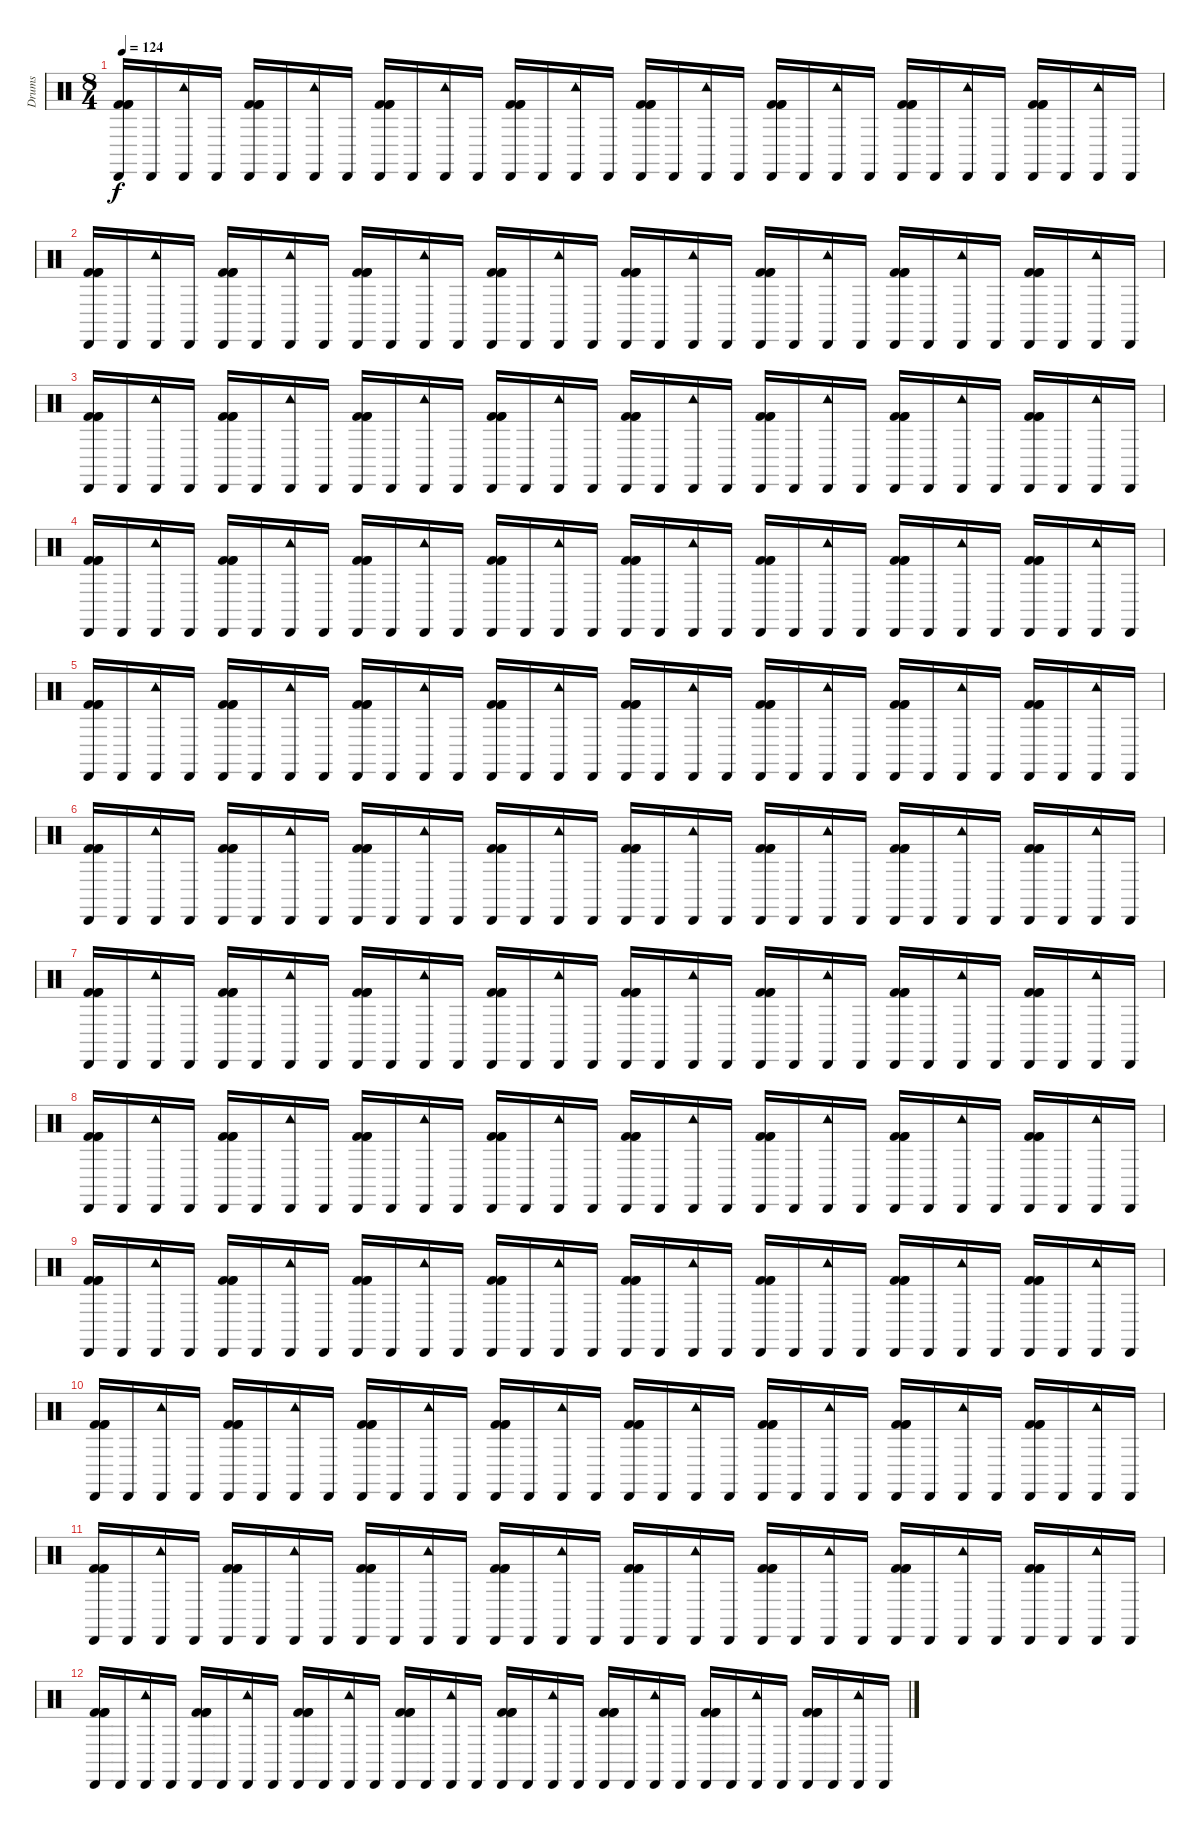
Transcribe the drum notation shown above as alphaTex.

\track ("Drums" "Drums") {instrument percussion}
\staff {score}
\articulation defaults
\ts (8 4)
\tempo 124
\clef neutral
\ks c
("Cabasa (hit)" "Kick (hit) 2" "Kick (hit) 2" "Kick (hit) 2").16{dy f volume 16} "Cabasa (hit)".16 ("Tambourine (hit)" "Cabasa (hit)").16 "Cabasa (hit)".16 ("Cabasa (hit)" "Kick (hit) 2" "Kick (hit) 2" "Kick (hit) 2").16 "Cabasa (hit)".16 ("Tambourine (hit)" "Cabasa (hit)").16 "Cabasa (hit)".16 ("Cabasa (hit)" "Kick (hit) 2" "Kick (hit) 2" "Kick (hit) 2").16 "Cabasa (hit)".16 ("Tambourine (hit)" "Cabasa (hit)").16 "Cabasa (hit)".16 ("Cabasa (hit)" "Kick (hit) 2" "Kick (hit) 2" "Kick (hit) 2").16 "Cabasa (hit)".16 ("Tambourine (hit)" "Cabasa (hit)").16 "Cabasa (hit)".16 ("Cabasa (hit)" "Kick (hit) 2" "Kick (hit) 2" "Kick (hit) 2").16 "Cabasa (hit)".16 ("Tambourine (hit)" "Cabasa (hit)").16 "Cabasa (hit)".16 ("Cabasa (hit)" "Kick (hit) 2" "Kick (hit) 2" "Kick (hit) 2").16 "Cabasa (hit)".16 ("Tambourine (hit)" "Cabasa (hit)").16 "Cabasa (hit)".16 ("Cabasa (hit)" "Kick (hit) 2" "Kick (hit) 2" "Kick (hit) 2").16 "Cabasa (hit)".16 ("Tambourine (hit)" "Cabasa (hit)").16 "Cabasa (hit)".16 ("Cabasa (hit)" "Kick (hit) 2" "Kick (hit) 2" "Kick (hit) 2").16 "Cabasa (hit)".16 ("Tambourine (hit)" "Cabasa (hit)").16 "Cabasa (hit)".16 |
("Cabasa (hit)" "Kick (hit) 2" "Kick (hit) 2" "Kick (hit) 2").16{volume 16} "Cabasa (hit)".16 ("Tambourine (hit)" "Cabasa (hit)").16 "Cabasa (hit)".16 ("Cabasa (hit)" "Kick (hit) 2" "Kick (hit) 2" "Kick (hit) 2").16 "Cabasa (hit)".16 ("Tambourine (hit)" "Cabasa (hit)").16 "Cabasa (hit)".16 ("Cabasa (hit)" "Kick (hit) 2" "Kick (hit) 2" "Kick (hit) 2").16 "Cabasa (hit)".16 ("Tambourine (hit)" "Cabasa (hit)").16 "Cabasa (hit)".16 ("Cabasa (hit)" "Kick (hit) 2" "Kick (hit) 2" "Kick (hit) 2").16 "Cabasa (hit)".16 ("Tambourine (hit)" "Cabasa (hit)").16 "Cabasa (hit)".16 ("Cabasa (hit)" "Kick (hit) 2" "Kick (hit) 2" "Kick (hit) 2").16 "Cabasa (hit)".16 ("Tambourine (hit)" "Cabasa (hit)").16 "Cabasa (hit)".16 ("Cabasa (hit)" "Kick (hit) 2" "Kick (hit) 2" "Kick (hit) 2").16 "Cabasa (hit)".16 ("Tambourine (hit)" "Cabasa (hit)").16 "Cabasa (hit)".16 ("Cabasa (hit)" "Kick (hit) 2" "Kick (hit) 2" "Kick (hit) 2").16 "Cabasa (hit)".16 ("Tambourine (hit)" "Cabasa (hit)").16 "Cabasa (hit)".16 ("Cabasa (hit)" "Kick (hit) 2" "Kick (hit) 2" "Kick (hit) 2").16 "Cabasa (hit)".16 ("Tambourine (hit)" "Cabasa (hit)").16 "Cabasa (hit)".16 |
("Cabasa (hit)" "Kick (hit) 2" "Kick (hit) 2" "Kick (hit) 2").16{volume 16} "Cabasa (hit)".16 ("Tambourine (hit)" "Cabasa (hit)").16 "Cabasa (hit)".16 ("Cabasa (hit)" "Kick (hit) 2" "Kick (hit) 2" "Kick (hit) 2").16 "Cabasa (hit)".16 ("Tambourine (hit)" "Cabasa (hit)").16 "Cabasa (hit)".16 ("Cabasa (hit)" "Kick (hit) 2" "Kick (hit) 2" "Kick (hit) 2").16 "Cabasa (hit)".16 ("Tambourine (hit)" "Cabasa (hit)").16 "Cabasa (hit)".16 ("Cabasa (hit)" "Kick (hit) 2" "Kick (hit) 2" "Kick (hit) 2").16 "Cabasa (hit)".16 ("Tambourine (hit)" "Cabasa (hit)").16 "Cabasa (hit)".16 ("Cabasa (hit)" "Kick (hit) 2" "Kick (hit) 2" "Kick (hit) 2").16 "Cabasa (hit)".16 ("Tambourine (hit)" "Cabasa (hit)").16 "Cabasa (hit)".16 ("Cabasa (hit)" "Kick (hit) 2" "Kick (hit) 2" "Kick (hit) 2").16 "Cabasa (hit)".16 ("Tambourine (hit)" "Cabasa (hit)").16 "Cabasa (hit)".16 ("Cabasa (hit)" "Kick (hit) 2" "Kick (hit) 2" "Kick (hit) 2").16 "Cabasa (hit)".16 ("Tambourine (hit)" "Cabasa (hit)").16 "Cabasa (hit)".16 ("Cabasa (hit)" "Kick (hit) 2" "Kick (hit) 2" "Kick (hit) 2").16 "Cabasa (hit)".16 ("Tambourine (hit)" "Cabasa (hit)").16 "Cabasa (hit)".16 |
("Cabasa (hit)" "Kick (hit) 2" "Kick (hit) 2" "Kick (hit) 2").16{volume 16} "Cabasa (hit)".16 ("Tambourine (hit)" "Cabasa (hit)").16 "Cabasa (hit)".16 ("Cabasa (hit)" "Kick (hit) 2" "Kick (hit) 2" "Kick (hit) 2").16 "Cabasa (hit)".16 ("Tambourine (hit)" "Cabasa (hit)").16 "Cabasa (hit)".16 ("Cabasa (hit)" "Kick (hit) 2" "Kick (hit) 2" "Kick (hit) 2").16 "Cabasa (hit)".16 ("Tambourine (hit)" "Cabasa (hit)").16 "Cabasa (hit)".16 ("Cabasa (hit)" "Kick (hit) 2" "Kick (hit) 2" "Kick (hit) 2").16 "Cabasa (hit)".16 ("Tambourine (hit)" "Cabasa (hit)").16 "Cabasa (hit)".16 ("Cabasa (hit)" "Kick (hit) 2" "Kick (hit) 2" "Kick (hit) 2").16 "Cabasa (hit)".16 ("Tambourine (hit)" "Cabasa (hit)").16 "Cabasa (hit)".16 ("Cabasa (hit)" "Kick (hit) 2" "Kick (hit) 2" "Kick (hit) 2").16 "Cabasa (hit)".16 ("Tambourine (hit)" "Cabasa (hit)").16 "Cabasa (hit)".16 ("Cabasa (hit)" "Kick (hit) 2" "Kick (hit) 2" "Kick (hit) 2").16 "Cabasa (hit)".16 ("Tambourine (hit)" "Cabasa (hit)").16 "Cabasa (hit)".16 ("Cabasa (hit)" "Kick (hit) 2" "Kick (hit) 2" "Kick (hit) 2").16 "Cabasa (hit)".16 ("Tambourine (hit)" "Cabasa (hit)").16 "Cabasa (hit)".16 |
("Cabasa (hit)" "Kick (hit) 2" "Kick (hit) 2" "Kick (hit) 2").16{volume 16} "Cabasa (hit)".16 ("Tambourine (hit)" "Cabasa (hit)").16 "Cabasa (hit)".16 ("Cabasa (hit)" "Kick (hit) 2" "Kick (hit) 2" "Kick (hit) 2").16 "Cabasa (hit)".16 ("Tambourine (hit)" "Cabasa (hit)").16 "Cabasa (hit)".16 ("Cabasa (hit)" "Kick (hit) 2" "Kick (hit) 2" "Kick (hit) 2").16 "Cabasa (hit)".16 ("Tambourine (hit)" "Cabasa (hit)").16 "Cabasa (hit)".16 ("Cabasa (hit)" "Kick (hit) 2" "Kick (hit) 2" "Kick (hit) 2").16 "Cabasa (hit)".16 ("Tambourine (hit)" "Cabasa (hit)").16 "Cabasa (hit)".16 ("Cabasa (hit)" "Kick (hit) 2" "Kick (hit) 2" "Kick (hit) 2").16 "Cabasa (hit)".16 ("Tambourine (hit)" "Cabasa (hit)").16 "Cabasa (hit)".16 ("Cabasa (hit)" "Kick (hit) 2" "Kick (hit) 2" "Kick (hit) 2").16 "Cabasa (hit)".16 ("Tambourine (hit)" "Cabasa (hit)").16 "Cabasa (hit)".16 ("Cabasa (hit)" "Kick (hit) 2" "Kick (hit) 2" "Kick (hit) 2").16 "Cabasa (hit)".16 ("Tambourine (hit)" "Cabasa (hit)").16 "Cabasa (hit)".16 ("Cabasa (hit)" "Kick (hit) 2" "Kick (hit) 2" "Kick (hit) 2").16 "Cabasa (hit)".16 ("Tambourine (hit)" "Cabasa (hit)").16 "Cabasa (hit)".16 |
("Cabasa (hit)" "Kick (hit) 2" "Kick (hit) 2" "Kick (hit) 2").16{volume 16} "Cabasa (hit)".16 ("Tambourine (hit)" "Cabasa (hit)").16 "Cabasa (hit)".16 ("Cabasa (hit)" "Kick (hit) 2" "Kick (hit) 2" "Kick (hit) 2").16 "Cabasa (hit)".16 ("Tambourine (hit)" "Cabasa (hit)").16 "Cabasa (hit)".16 ("Cabasa (hit)" "Kick (hit) 2" "Kick (hit) 2" "Kick (hit) 2").16 "Cabasa (hit)".16 ("Tambourine (hit)" "Cabasa (hit)").16 "Cabasa (hit)".16 ("Cabasa (hit)" "Kick (hit) 2" "Kick (hit) 2" "Kick (hit) 2").16 "Cabasa (hit)".16 ("Tambourine (hit)" "Cabasa (hit)").16 "Cabasa (hit)".16 ("Cabasa (hit)" "Kick (hit) 2" "Kick (hit) 2" "Kick (hit) 2").16 "Cabasa (hit)".16 ("Tambourine (hit)" "Cabasa (hit)").16 "Cabasa (hit)".16 ("Cabasa (hit)" "Kick (hit) 2" "Kick (hit) 2" "Kick (hit) 2").16 "Cabasa (hit)".16 ("Tambourine (hit)" "Cabasa (hit)").16 "Cabasa (hit)".16 ("Cabasa (hit)" "Kick (hit) 2" "Kick (hit) 2" "Kick (hit) 2").16 "Cabasa (hit)".16 ("Tambourine (hit)" "Cabasa (hit)").16 "Cabasa (hit)".16 ("Cabasa (hit)" "Kick (hit) 2" "Kick (hit) 2" "Kick (hit) 2").16 "Cabasa (hit)".16 ("Tambourine (hit)" "Cabasa (hit)").16 "Cabasa (hit)".16 |
("Cabasa (hit)" "Kick (hit) 2" "Kick (hit) 2" "Kick (hit) 2").16{volume 16} "Cabasa (hit)".16 ("Tambourine (hit)" "Cabasa (hit)").16 "Cabasa (hit)".16 ("Cabasa (hit)" "Kick (hit) 2" "Kick (hit) 2" "Kick (hit) 2").16 "Cabasa (hit)".16 ("Tambourine (hit)" "Cabasa (hit)").16 "Cabasa (hit)".16 ("Cabasa (hit)" "Kick (hit) 2" "Kick (hit) 2" "Kick (hit) 2").16 "Cabasa (hit)".16 ("Tambourine (hit)" "Cabasa (hit)").16 "Cabasa (hit)".16 ("Cabasa (hit)" "Kick (hit) 2" "Kick (hit) 2" "Kick (hit) 2").16 "Cabasa (hit)".16 ("Tambourine (hit)" "Cabasa (hit)").16 "Cabasa (hit)".16 ("Cabasa (hit)" "Kick (hit) 2" "Kick (hit) 2" "Kick (hit) 2").16 "Cabasa (hit)".16 ("Tambourine (hit)" "Cabasa (hit)").16 "Cabasa (hit)".16 ("Cabasa (hit)" "Kick (hit) 2" "Kick (hit) 2" "Kick (hit) 2").16 "Cabasa (hit)".16 ("Tambourine (hit)" "Cabasa (hit)").16 "Cabasa (hit)".16 ("Cabasa (hit)" "Kick (hit) 2" "Kick (hit) 2" "Kick (hit) 2").16 "Cabasa (hit)".16 ("Tambourine (hit)" "Cabasa (hit)").16 "Cabasa (hit)".16 ("Cabasa (hit)" "Kick (hit) 2" "Kick (hit) 2" "Kick (hit) 2").16 "Cabasa (hit)".16 ("Tambourine (hit)" "Cabasa (hit)").16 "Cabasa (hit)".16 |
("Cabasa (hit)" "Kick (hit) 2" "Kick (hit) 2" "Kick (hit) 2").16{volume 16} "Cabasa (hit)".16 ("Tambourine (hit)" "Cabasa (hit)").16 "Cabasa (hit)".16 ("Cabasa (hit)" "Kick (hit) 2" "Kick (hit) 2" "Kick (hit) 2").16 "Cabasa (hit)".16 ("Tambourine (hit)" "Cabasa (hit)").16 "Cabasa (hit)".16 ("Cabasa (hit)" "Kick (hit) 2" "Kick (hit) 2" "Kick (hit) 2").16 "Cabasa (hit)".16 ("Tambourine (hit)" "Cabasa (hit)").16 "Cabasa (hit)".16 ("Cabasa (hit)" "Kick (hit) 2" "Kick (hit) 2" "Kick (hit) 2").16 "Cabasa (hit)".16 ("Tambourine (hit)" "Cabasa (hit)").16 "Cabasa (hit)".16 ("Cabasa (hit)" "Kick (hit) 2" "Kick (hit) 2" "Kick (hit) 2").16 "Cabasa (hit)".16 ("Tambourine (hit)" "Cabasa (hit)").16 "Cabasa (hit)".16 ("Cabasa (hit)" "Kick (hit) 2" "Kick (hit) 2" "Kick (hit) 2").16 "Cabasa (hit)".16 ("Tambourine (hit)" "Cabasa (hit)").16 "Cabasa (hit)".16 ("Cabasa (hit)" "Kick (hit) 2" "Kick (hit) 2" "Kick (hit) 2").16 "Cabasa (hit)".16 ("Tambourine (hit)" "Cabasa (hit)").16 "Cabasa (hit)".16 ("Cabasa (hit)" "Kick (hit) 2" "Kick (hit) 2" "Kick (hit) 2").16 "Cabasa (hit)".16 ("Tambourine (hit)" "Cabasa (hit)").16 "Cabasa (hit)".16 |
("Cabasa (hit)" "Kick (hit) 2" "Kick (hit) 2" "Kick (hit) 2").16{volume 16} "Cabasa (hit)".16 ("Tambourine (hit)" "Cabasa (hit)").16 "Cabasa (hit)".16 ("Cabasa (hit)" "Kick (hit) 2" "Kick (hit) 2" "Kick (hit) 2").16 "Cabasa (hit)".16 ("Tambourine (hit)" "Cabasa (hit)").16 "Cabasa (hit)".16 ("Cabasa (hit)" "Kick (hit) 2" "Kick (hit) 2" "Kick (hit) 2").16 "Cabasa (hit)".16 ("Tambourine (hit)" "Cabasa (hit)").16 "Cabasa (hit)".16 ("Cabasa (hit)" "Kick (hit) 2" "Kick (hit) 2" "Kick (hit) 2").16 "Cabasa (hit)".16 ("Tambourine (hit)" "Cabasa (hit)").16 "Cabasa (hit)".16 ("Cabasa (hit)" "Kick (hit) 2" "Kick (hit) 2" "Kick (hit) 2").16 "Cabasa (hit)".16 ("Tambourine (hit)" "Cabasa (hit)").16 "Cabasa (hit)".16 ("Cabasa (hit)" "Kick (hit) 2" "Kick (hit) 2" "Kick (hit) 2").16 "Cabasa (hit)".16 ("Tambourine (hit)" "Cabasa (hit)").16 "Cabasa (hit)".16 ("Cabasa (hit)" "Kick (hit) 2" "Kick (hit) 2" "Kick (hit) 2").16 "Cabasa (hit)".16 ("Tambourine (hit)" "Cabasa (hit)").16 "Cabasa (hit)".16 ("Cabasa (hit)" "Kick (hit) 2" "Kick (hit) 2" "Kick (hit) 2").16 "Cabasa (hit)".16 ("Tambourine (hit)" "Cabasa (hit)").16 "Cabasa (hit)".16 |
("Cabasa (hit)" "Kick (hit) 2" "Kick (hit) 2" "Kick (hit) 2").16{volume 16} "Cabasa (hit)".16 ("Tambourine (hit)" "Cabasa (hit)").16 "Cabasa (hit)".16 ("Cabasa (hit)" "Kick (hit) 2" "Kick (hit) 2" "Kick (hit) 2").16 "Cabasa (hit)".16 ("Tambourine (hit)" "Cabasa (hit)").16 "Cabasa (hit)".16 ("Cabasa (hit)" "Kick (hit) 2" "Kick (hit) 2" "Kick (hit) 2").16 "Cabasa (hit)".16 ("Tambourine (hit)" "Cabasa (hit)").16 "Cabasa (hit)".16 ("Cabasa (hit)" "Kick (hit) 2" "Kick (hit) 2" "Kick (hit) 2").16 "Cabasa (hit)".16 ("Tambourine (hit)" "Cabasa (hit)").16 "Cabasa (hit)".16 ("Cabasa (hit)" "Kick (hit) 2" "Kick (hit) 2" "Kick (hit) 2").16 "Cabasa (hit)".16 ("Tambourine (hit)" "Cabasa (hit)").16 "Cabasa (hit)".16 ("Cabasa (hit)" "Kick (hit) 2" "Kick (hit) 2" "Kick (hit) 2").16 "Cabasa (hit)".16 ("Tambourine (hit)" "Cabasa (hit)").16 "Cabasa (hit)".16 ("Cabasa (hit)" "Kick (hit) 2" "Kick (hit) 2" "Kick (hit) 2").16 "Cabasa (hit)".16 ("Tambourine (hit)" "Cabasa (hit)").16 "Cabasa (hit)".16 ("Cabasa (hit)" "Kick (hit) 2" "Kick (hit) 2" "Kick (hit) 2").16 "Cabasa (hit)".16 ("Tambourine (hit)" "Cabasa (hit)").16 "Cabasa (hit)".16 |
("Cabasa (hit)" "Kick (hit) 2" "Kick (hit) 2" "Kick (hit) 2").16{volume 16} "Cabasa (hit)".16 ("Tambourine (hit)" "Cabasa (hit)").16 "Cabasa (hit)".16 ("Cabasa (hit)" "Kick (hit) 2" "Kick (hit) 2" "Kick (hit) 2").16 "Cabasa (hit)".16 ("Tambourine (hit)" "Cabasa (hit)").16 "Cabasa (hit)".16 ("Cabasa (hit)" "Kick (hit) 2" "Kick (hit) 2" "Kick (hit) 2").16 "Cabasa (hit)".16 ("Tambourine (hit)" "Cabasa (hit)").16 "Cabasa (hit)".16 ("Cabasa (hit)" "Kick (hit) 2" "Kick (hit) 2" "Kick (hit) 2").16 "Cabasa (hit)".16 ("Tambourine (hit)" "Cabasa (hit)").16 "Cabasa (hit)".16 ("Cabasa (hit)" "Kick (hit) 2" "Kick (hit) 2" "Kick (hit) 2").16 "Cabasa (hit)".16 ("Tambourine (hit)" "Cabasa (hit)").16 "Cabasa (hit)".16 ("Cabasa (hit)" "Kick (hit) 2" "Kick (hit) 2" "Kick (hit) 2").16 "Cabasa (hit)".16 ("Tambourine (hit)" "Cabasa (hit)").16 "Cabasa (hit)".16 ("Cabasa (hit)" "Kick (hit) 2" "Kick (hit) 2" "Kick (hit) 2").16 "Cabasa (hit)".16 ("Tambourine (hit)" "Cabasa (hit)").16 "Cabasa (hit)".16 ("Cabasa (hit)" "Kick (hit) 2" "Kick (hit) 2" "Kick (hit) 2").16 "Cabasa (hit)".16 ("Tambourine (hit)" "Cabasa (hit)").16 "Cabasa (hit)".16 |
("Cabasa (hit)" "Kick (hit) 2" "Kick (hit) 2" "Kick (hit) 2").16{volume 16} "Cabasa (hit)".16 ("Tambourine (hit)" "Cabasa (hit)").16 "Cabasa (hit)".16 ("Cabasa (hit)" "Kick (hit) 2" "Kick (hit) 2" "Kick (hit) 2").16 "Cabasa (hit)".16 ("Tambourine (hit)" "Cabasa (hit)").16 "Cabasa (hit)".16 ("Cabasa (hit)" "Kick (hit) 2" "Kick (hit) 2" "Kick (hit) 2").16 "Cabasa (hit)".16 ("Tambourine (hit)" "Cabasa (hit)").16 "Cabasa (hit)".16 ("Cabasa (hit)" "Kick (hit) 2" "Kick (hit) 2" "Kick (hit) 2").16 "Cabasa (hit)".16 ("Tambourine (hit)" "Cabasa (hit)").16 "Cabasa (hit)".16 ("Cabasa (hit)" "Kick (hit) 2" "Kick (hit) 2" "Kick (hit) 2").16 "Cabasa (hit)".16 ("Tambourine (hit)" "Cabasa (hit)").16 "Cabasa (hit)".16 ("Cabasa (hit)" "Kick (hit) 2" "Kick (hit) 2" "Kick (hit) 2").16 "Cabasa (hit)".16 ("Tambourine (hit)" "Cabasa (hit)").16 "Cabasa (hit)".16 ("Cabasa (hit)" "Kick (hit) 2" "Kick (hit) 2" "Kick (hit) 2").16 "Cabasa (hit)".16 ("Tambourine (hit)" "Cabasa (hit)").16 "Cabasa (hit)".16 ("Cabasa (hit)" "Kick (hit) 2" "Kick (hit) 2" "Kick (hit) 2").16 "Cabasa (hit)".16 ("Tambourine (hit)" "Cabasa (hit)").16 "Cabasa (hit)".16
